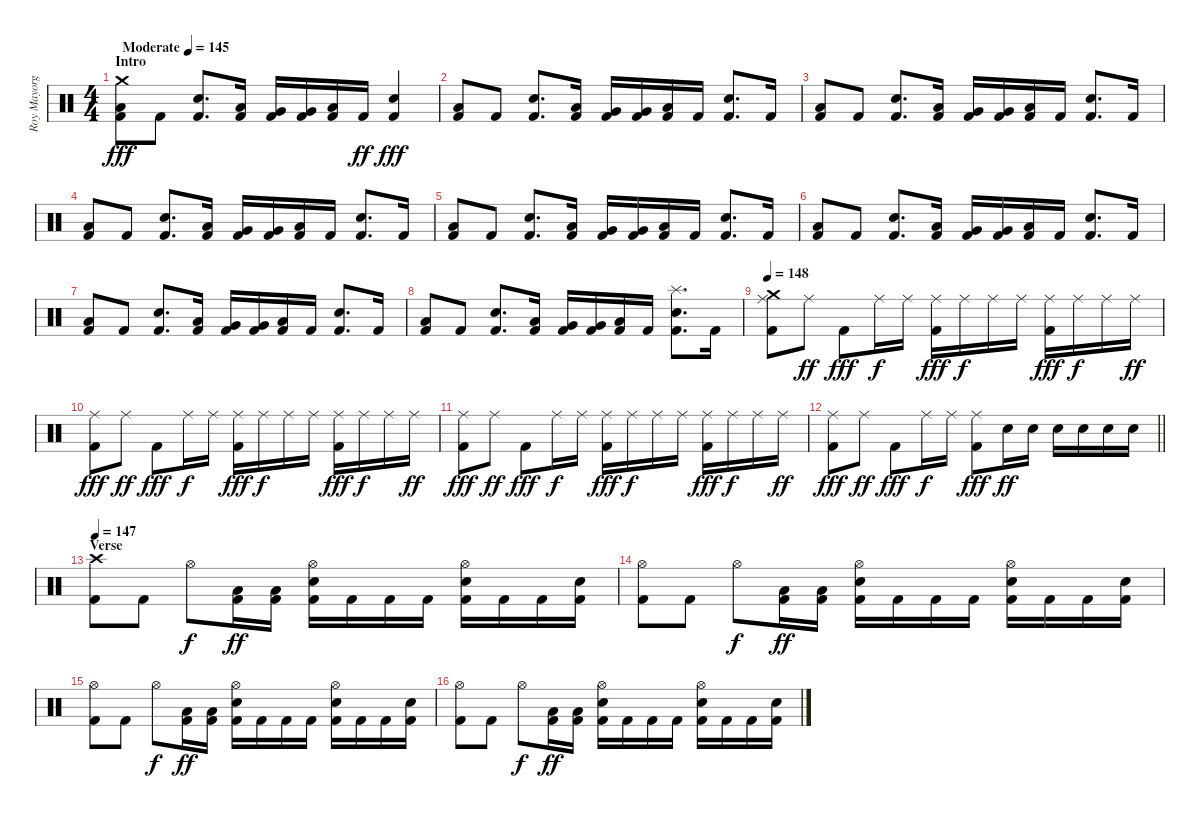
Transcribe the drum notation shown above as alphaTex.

\track ("Roy Mayorga (Drums)" "Roy Mayorg") {instrument percussion}
\staff {score}
\articulation defaults
\ts (4 4)
\section ("" "Intro")
\tempo (145 "Moderate")
\clef neutral
\ks c
("Crash medium (hit)" "Low Tom (hit)" "Kick (hit) 2").8{dy fff} "Kick (hit) 2".8 ("Electric Snare (hit)" "Kick (hit) 2").8{d} ("Low Tom (hit)" "Kick (hit) 2").16 ("Very Low Tom (hit)" "Kick (hit) 2").16 ("Very Low Tom (hit)" "Kick (hit) 2").16 ("Low Floor Tom (hit)" "Kick (hit) 2").16 "Kick (hit) 2".16{dy ff} ("Electric Snare (hit)" "Kick (hit) 2").4{dy fff} |
("Low Tom (hit)" "Kick (hit) 2").8 "Kick (hit) 2".8 ("Electric Snare (hit)" "Kick (hit) 2").8{d} ("Low Tom (hit)" "Kick (hit) 2").16 ("Very Low Tom (hit)" "Kick (hit) 2").16 ("Very Low Tom (hit)" "Kick (hit) 2").16 ("Low Floor Tom (hit)" "Kick (hit) 2").16 "Kick (hit) 2".16 ("Electric Snare (hit)" "Kick (hit) 2").8{d} "Kick (hit) 2".16 |
("Low Tom (hit)" "Kick (hit) 2").8 "Kick (hit) 2".8 ("Electric Snare (hit)" "Kick (hit) 2").8{d} ("Low Tom (hit)" "Kick (hit) 2").16 ("Very Low Tom (hit)" "Kick (hit) 2").16 ("Very Low Tom (hit)" "Kick (hit) 2").16 ("Low Floor Tom (hit)" "Kick (hit) 2").16 "Kick (hit) 2".16 ("Electric Snare (hit)" "Kick (hit) 2").8{d} "Kick (hit) 2".16 |
("Low Tom (hit)" "Kick (hit) 2").8 "Kick (hit) 2".8 ("Electric Snare (hit)" "Kick (hit) 2").8{d} ("Low Tom (hit)" "Kick (hit) 2").16 ("Very Low Tom (hit)" "Kick (hit) 2").16 ("Very Low Tom (hit)" "Kick (hit) 2").16 ("Low Floor Tom (hit)" "Kick (hit) 2").16 "Kick (hit) 2".16 ("Electric Snare (hit)" "Kick (hit) 2").8{d} "Kick (hit) 2".16 |
("Low Tom (hit)" "Kick (hit) 2").8 "Kick (hit) 2".8 ("Electric Snare (hit)" "Kick (hit) 2").8{d} ("Low Tom (hit)" "Kick (hit) 2").16 ("Very Low Tom (hit)" "Kick (hit) 2").16 ("Very Low Tom (hit)" "Kick (hit) 2").16 ("Low Floor Tom (hit)" "Kick (hit) 2").16 "Kick (hit) 2".16 ("Electric Snare (hit)" "Kick (hit) 2").8{d} "Kick (hit) 2".16 |
("Low Tom (hit)" "Kick (hit) 2").8 "Kick (hit) 2".8 ("Electric Snare (hit)" "Kick (hit) 2").8{d} ("Low Tom (hit)" "Kick (hit) 2").16 ("Very Low Tom (hit)" "Kick (hit) 2").16 ("Very Low Tom (hit)" "Kick (hit) 2").16 ("Low Floor Tom (hit)" "Kick (hit) 2").16 "Kick (hit) 2".16 ("Electric Snare (hit)" "Kick (hit) 2").8{d} "Kick (hit) 2".16 |
("Low Tom (hit)" "Kick (hit) 2").8 "Kick (hit) 2".8 ("Electric Snare (hit)" "Kick (hit) 2").8{d} ("Low Tom (hit)" "Kick (hit) 2").16 ("Very Low Tom (hit)" "Kick (hit) 2").16 ("Very Low Tom (hit)" "Kick (hit) 2").16 ("Low Floor Tom (hit)" "Kick (hit) 2").16 "Kick (hit) 2".16 ("Electric Snare (hit)" "Kick (hit) 2").8{d} "Kick (hit) 2".16 |
("Low Tom (hit)" "Kick (hit) 2").8 "Kick (hit) 2".8 ("Electric Snare (hit)" "Kick (hit) 2").8{d} ("Low Tom (hit)" "Kick (hit) 2").16 ("Very Low Tom (hit)" "Kick (hit) 2").16 ("Very Low Tom (hit)" "Kick (hit) 2").16 ("Low Floor Tom (hit)" "Kick (hit) 2").16 "Kick (hit) 2".16 ("Splash (hit)" "Electric Snare (hit)" "Kick (hit) 2").8{d} "Kick (hit) 2".16 |
\tempo 148
("Crash medium (hit)" "Ride (middle)" "Kick (hit) 2").8{volume 14} "Ride (middle)".8{dy ff} "Kick (hit) 2".8{dy fff} "Ride (middle)".16{dy f} "Ride (middle)".16 ("Ride (middle)" "Kick (hit) 2").16{dy fff} "Ride (middle)".16{dy f} "Ride (middle)".16 "Ride (middle)".16 ("Ride (middle)" "Kick (hit) 2").16{dy fff} "Ride (middle)".16{dy f} "Ride (middle)".16 "Ride (middle)".16{dy ff} |
("Ride (middle)" "Kick (hit) 2").8{dy fff} "Ride (middle)".8{dy ff} "Kick (hit) 2".8{dy fff} "Ride (middle)".16{dy f} "Ride (middle)".16 ("Ride (middle)" "Kick (hit) 2").16{dy fff} "Ride (middle)".16{dy f} "Ride (middle)".16 "Ride (middle)".16 ("Ride (middle)" "Kick (hit) 2").16{dy fff} "Ride (middle)".16{dy f} "Ride (middle)".16 "Ride (middle)".16{dy ff} |
("Ride (middle)" "Kick (hit) 2").8{dy fff} "Ride (middle)".8{dy ff} "Kick (hit) 2".8{dy fff} "Ride (middle)".16{dy f} "Ride (middle)".16 ("Ride (middle)" "Kick (hit) 2").16{dy fff} "Ride (middle)".16{dy f} "Ride (middle)".16 "Ride (middle)".16 ("Ride (middle)" "Kick (hit) 2").16{dy fff} "Ride (middle)".16{dy f} "Ride (middle)".16 "Ride (middle)".16{dy ff} |
\barLineRight lightlight
("Ride (middle)" "Kick (hit) 2").8{dy fff} "Ride (middle)".8{dy ff} "Kick (hit) 2".8{dy fff} "Ride (middle)".16{dy f} "Ride (middle)".16 ("Ride (middle)" "Kick (hit) 2").8{dy fff} "Electric Snare (hit)".16{dy ff} "Electric Snare (hit)".16 "Electric Snare (hit)".16 "Electric Snare (hit)".16 "Electric Snare (hit)".16 "Electric Snare (hit)".16 |
\section ("" "Verse")
\tempo 147
("Crash high (hit)" "Kick (hit) 2").8{volume 13} "Kick (hit) 2".8 "Hi-Hat (open)".8{dy f} ("Low Tom (hit)" "Kick (hit) 2").16{dy ff} ("Low Tom (hit)" "Kick (hit) 2").16 ("Hi-Hat (open)" "Electric Snare (hit)" "Kick (hit) 2").16 "Kick (hit) 2".16 "Kick (hit) 2".16 "Kick (hit) 2".16 ("Hi-Hat (open)" "Electric Snare (hit)" "Kick (hit) 2").16 "Kick (hit) 2".16 "Kick (hit) 2".16 ("Electric Snare (hit)" "Kick (hit) 2").16 |
("Hi-Hat (open)" "Kick (hit) 2").8 "Kick (hit) 2".8 "Hi-Hat (open)".8{dy f} ("Low Tom (hit)" "Kick (hit) 2").16{dy ff} ("Low Tom (hit)" "Kick (hit) 2").16 ("Hi-Hat (open)" "Electric Snare (hit)" "Kick (hit) 2").16 "Kick (hit) 2".16 "Kick (hit) 2".16 "Kick (hit) 2".16 ("Hi-Hat (open)" "Electric Snare (hit)" "Kick (hit) 2").16 "Kick (hit) 2".16 "Kick (hit) 2".16 ("Electric Snare (hit)" "Kick (hit) 2").16 |
("Hi-Hat (open)" "Kick (hit) 2").8 "Kick (hit) 2".8 "Hi-Hat (open)".8{dy f} ("Low Tom (hit)" "Kick (hit) 2").16{dy ff} ("Low Tom (hit)" "Kick (hit) 2").16 ("Hi-Hat (open)" "Electric Snare (hit)" "Kick (hit) 2").16 "Kick (hit) 2".16 "Kick (hit) 2".16 "Kick (hit) 2".16 ("Hi-Hat (open)" "Electric Snare (hit)" "Kick (hit) 2").16 "Kick (hit) 2".16 "Kick (hit) 2".16 ("Electric Snare (hit)" "Kick (hit) 2").16 |
("Hi-Hat (open)" "Kick (hit) 2").8 "Kick (hit) 2".8 "Hi-Hat (open)".8{dy f} ("Low Tom (hit)" "Kick (hit) 2").16{dy ff} ("Low Tom (hit)" "Kick (hit) 2").16 ("Hi-Hat (open)" "Electric Snare (hit)" "Kick (hit) 2").16 "Kick (hit) 2".16 "Kick (hit) 2".16 "Kick (hit) 2".16 ("Hi-Hat (open)" "Electric Snare (hit)" "Kick (hit) 2").16 "Kick (hit) 2".16 "Kick (hit) 2".16 ("Electric Snare (hit)" "Kick (hit) 2").16
